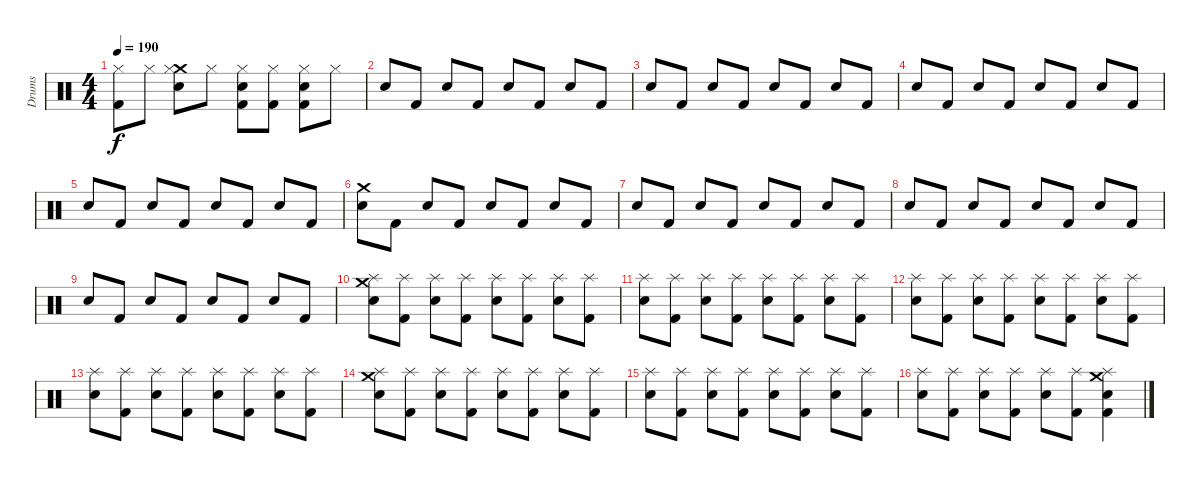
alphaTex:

\track ("Drums" "Drums") {instrument percussion}
\staff {score}
\articulation defaults
\ts (4 4)
\tempo 190
\clef neutral
\ks c
("Hi-Hat (closed)" "Kick (hit) 2").8{dy f} "Hi-Hat (closed)".8 ("Crash medium (hit)" "Hi-Hat (closed)" "Electric Snare (hit)").8 "Hi-Hat (closed)".8 ("Hi-Hat (closed)" "Electric Snare (hit)" "Kick (hit) 2").8 ("Hi-Hat (closed)" "Kick (hit) 2").8 ("Hi-Hat (closed)" "Electric Snare (hit)" "Kick (hit) 2").8 "Hi-Hat (closed)".8 |
"Electric Snare (hit)".8 "Kick (hit) 2".8 "Electric Snare (hit)".8 "Kick (hit) 2".8 "Electric Snare (hit)".8 "Kick (hit) 2".8 "Electric Snare (hit)".8 "Kick (hit) 2".8 |
"Electric Snare (hit)".8 "Kick (hit) 2".8 "Electric Snare (hit)".8 "Kick (hit) 2".8 "Electric Snare (hit)".8 "Kick (hit) 2".8 "Electric Snare (hit)".8 "Kick (hit) 2".8 |
"Electric Snare (hit)".8 "Kick (hit) 2".8 "Electric Snare (hit)".8 "Kick (hit) 2".8 "Electric Snare (hit)".8 "Kick (hit) 2".8 "Electric Snare (hit)".8 "Kick (hit) 2".8 |
"Electric Snare (hit)".8 "Kick (hit) 2".8 "Electric Snare (hit)".8 "Kick (hit) 2".8 "Electric Snare (hit)".8 "Kick (hit) 2".8 "Electric Snare (hit)".8 "Kick (hit) 2".8 |
("Crash medium (hit)" "Electric Snare (hit)").8 "Kick (hit) 2".8 "Electric Snare (hit)".8 "Kick (hit) 2".8 "Electric Snare (hit)".8 "Kick (hit) 2".8 "Electric Snare (hit)".8 "Kick (hit) 2".8 |
"Electric Snare (hit)".8 "Kick (hit) 2".8 "Electric Snare (hit)".8 "Kick (hit) 2".8 "Electric Snare (hit)".8 "Kick (hit) 2".8 "Electric Snare (hit)".8 "Kick (hit) 2".8 |
"Electric Snare (hit)".8 "Kick (hit) 2".8 "Electric Snare (hit)".8 "Kick (hit) 2".8 "Electric Snare (hit)".8 "Kick (hit) 2".8 "Electric Snare (hit)".8 "Kick (hit) 2".8 |
"Electric Snare (hit)".8 "Kick (hit) 2".8 "Electric Snare (hit)".8 "Kick (hit) 2".8 "Electric Snare (hit)".8 "Kick (hit) 2".8 "Electric Snare (hit)".8 "Kick (hit) 2".8 |
("Crash medium (hit)" "Splash (hit)" "Electric Snare (hit)").8 ("Splash (hit)" "Kick (hit) 2").8 ("Splash (hit)" "Electric Snare (hit)").8 ("Splash (hit)" "Kick (hit) 2").8 ("Splash (hit)" "Electric Snare (hit)").8 ("Splash (hit)" "Kick (hit) 2").8 ("Splash (hit)" "Electric Snare (hit)").8 ("Splash (hit)" "Kick (hit) 2").8 |
("Splash (hit)" "Electric Snare (hit)").8 ("Splash (hit)" "Kick (hit) 2").8 ("Splash (hit)" "Electric Snare (hit)").8 ("Splash (hit)" "Kick (hit) 2").8 ("Splash (hit)" "Electric Snare (hit)").8 ("Splash (hit)" "Kick (hit) 2").8 ("Splash (hit)" "Electric Snare (hit)").8 ("Splash (hit)" "Kick (hit) 2").8 |
("Splash (hit)" "Electric Snare (hit)").8 ("Splash (hit)" "Kick (hit) 2").8 ("Splash (hit)" "Electric Snare (hit)").8 ("Splash (hit)" "Kick (hit) 2").8 ("Splash (hit)" "Electric Snare (hit)").8 ("Splash (hit)" "Kick (hit) 2").8 ("Splash (hit)" "Electric Snare (hit)").8 ("Splash (hit)" "Kick (hit) 2").8 |
("Splash (hit)" "Electric Snare (hit)").8 ("Splash (hit)" "Kick (hit) 2").8 ("Splash (hit)" "Electric Snare (hit)").8 ("Splash (hit)" "Kick (hit) 2").8 ("Splash (hit)" "Electric Snare (hit)").8 ("Splash (hit)" "Kick (hit) 2").8 ("Splash (hit)" "Electric Snare (hit)").8 ("Splash (hit)" "Kick (hit) 2").8 |
("Crash medium (hit)" "Splash (hit)" "Electric Snare (hit)").8 ("Splash (hit)" "Kick (hit) 2").8 ("Splash (hit)" "Electric Snare (hit)").8 ("Splash (hit)" "Kick (hit) 2").8 ("Splash (hit)" "Electric Snare (hit)").8 ("Splash (hit)" "Kick (hit) 2").8 ("Splash (hit)" "Electric Snare (hit)").8 ("Splash (hit)" "Kick (hit) 2").8 |
("Splash (hit)" "Electric Snare (hit)").8 ("Splash (hit)" "Kick (hit) 2").8 ("Splash (hit)" "Electric Snare (hit)").8 ("Splash (hit)" "Kick (hit) 2").8 ("Splash (hit)" "Electric Snare (hit)").8 ("Splash (hit)" "Kick (hit) 2").8 ("Splash (hit)" "Electric Snare (hit)").8 ("Splash (hit)" "Kick (hit) 2").8 |
("Splash (hit)" "Electric Snare (hit)").8 ("Splash (hit)" "Kick (hit) 2").8 ("Splash (hit)" "Electric Snare (hit)").8 ("Splash (hit)" "Kick (hit) 2").8 ("Splash (hit)" "Electric Snare (hit)").8 ("Splash (hit)" "Kick (hit) 2").8 ("Crash medium (hit)" "Splash (hit)" "Electric Snare (hit)" "Kick (hit) 2").4
